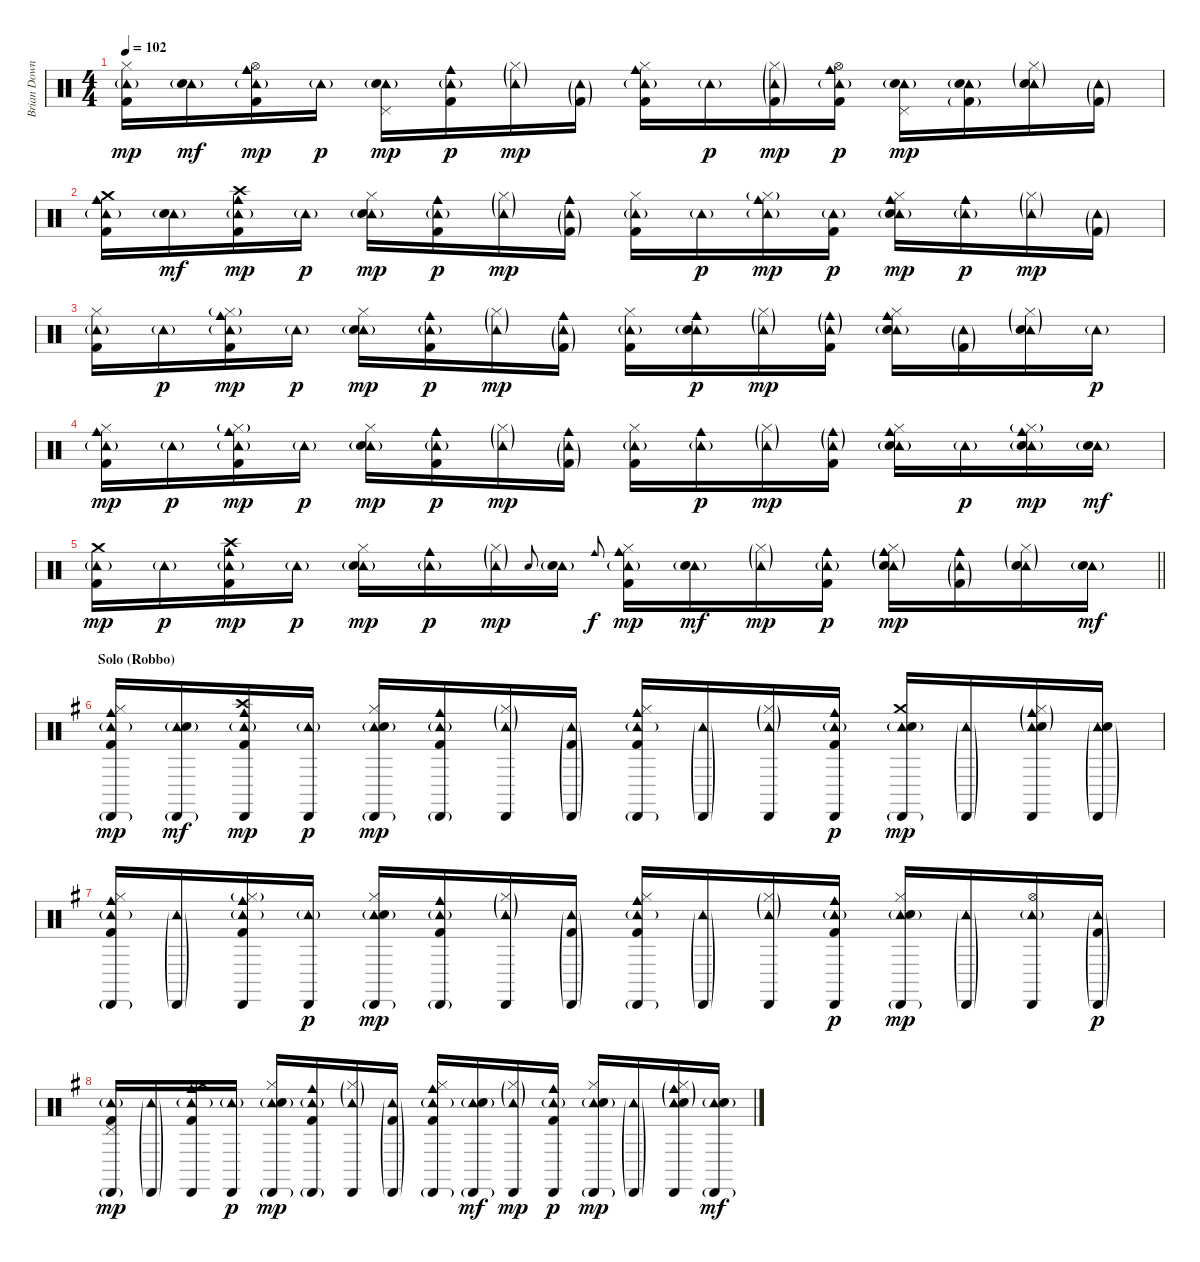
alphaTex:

\track ("Brian Downey" "Brian Down") {instrument percussion}
\staff {score}
\articulation defaults
\ts (4 4)
\tempo 102
\clef neutral
\ks c
("Hi-Hat (closed)" "Tambourine (hit)"{g} "Kick (hit) 2").16{dy mp} ("Tambourine (hit)"{g} "Electric Snare (hit)").16{dy mf} ("Hi-Hat (open)" "Tambourine (hit)"{g} "Cowbell medium (hit)" "Kick (hit) 2").16{dy mp} "Tambourine (hit)"{g}.16{dy p} ("Pedal Hi-Hat (hit)" "Tambourine (hit)"{g} "Electric Snare (hit)").16{dy mp} ("Tambourine (hit)"{g} "Cowbell medium (hit)" "Kick (hit) 2").16{dy p} ("Hi-Hat (closed)"{g} "Tambourine (hit)"{g}).16{dy mp} ("Tambourine (hit)"{g} "Kick (hit) 2"{g}).16 ("Hi-Hat (closed)" "Tambourine (hit)"{g} "Cowbell medium (hit)" "Kick (hit) 2").16 "Tambourine (hit)"{g}.16{dy p} ("Hi-Hat (closed)"{g} "Tambourine (hit)"{g} "Kick (hit) 2"{g}).16{dy mp} ("Hi-Hat (open)" "Tambourine (hit)"{g} "Cowbell medium (hit)" "Kick (hit) 2").16{dy p} ("Pedal Hi-Hat (hit)" "Tambourine (hit)"{g} "Electric Snare (hit)").16{dy mp} ("Tambourine (hit)"{g} "Electric Snare (hit)" "Kick (hit) 2"{g}).16 ("Hi-Hat (closed)"{g} "Tambourine (hit)"{g} "Electric Snare (hit)").16 ("Tambourine (hit)"{g} "Kick (hit) 2"{g}).16 |
("Crash medium (hit)" "Tambourine (hit)"{g} "Cowbell medium (hit)" "Kick (hit) 2").16 ("Tambourine (hit)"{g} "Electric Snare (hit)").16{dy mf} ("Crash high (hit)" "Tambourine (hit)"{g} "Cowbell medium (hit)" "Kick (hit) 2").16{dy mp} "Tambourine (hit)"{g}.16{dy p} ("Hi-Hat (closed)" "Tambourine (hit)"{g} "Electric Snare (hit)").16{dy mp} ("Tambourine (hit)"{g} "Cowbell medium (hit)" "Kick (hit) 2").16{dy p} ("Hi-Hat (closed)"{g} "Tambourine (hit)"{g}).16{dy mp} ("Tambourine (hit)"{g} "Cowbell medium (hit)" "Kick (hit) 2"{g}).16 ("Hi-Hat (closed)" "Tambourine (hit)"{g} "Kick (hit) 2").16 "Tambourine (hit)"{g}.16{dy p} ("Hi-Hat (closed)"{g} "Tambourine (hit)"{g} "Cowbell medium (hit)").16{dy mp} ("Tambourine (hit)"{g} "Kick (hit) 2").16{dy p} ("Hi-Hat (closed)" "Tambourine (hit)"{g} "Cowbell medium (hit)" "Electric Snare (hit)").16{dy mp} ("Tambourine (hit)"{g} "Cowbell medium (hit)").16{dy p} ("Hi-Hat (closed)"{g} "Tambourine (hit)"{g}).16{dy mp} ("Tambourine (hit)"{g} "Kick (hit) 2"{g}).16 |
("Hi-Hat (closed)" "Tambourine (hit)"{g} "Kick (hit) 2").16 "Tambourine (hit)"{g}.16{dy p} ("Hi-Hat (closed)"{g} "Tambourine (hit)"{g} "Cowbell medium (hit)" "Kick (hit) 2").16{dy mp} "Tambourine (hit)"{g}.16{dy p} ("Hi-Hat (closed)" "Tambourine (hit)"{g} "Electric Snare (hit)").16{dy mp} ("Tambourine (hit)"{g} "Cowbell medium (hit)" "Kick (hit) 2").16{dy p} ("Hi-Hat (closed)"{g} "Tambourine (hit)"{g}).16{dy mp} ("Tambourine (hit)"{g} "Cowbell medium (hit)" "Kick (hit) 2"{g}).16 ("Hi-Hat (closed)" "Tambourine (hit)"{g} "Kick (hit) 2").16 ("Tambourine (hit)"{g} "Cowbell medium (hit)" "Electric Snare (hit)").16{dy p} ("Hi-Hat (closed)"{g} "Tambourine (hit)"{g}).16{dy mp} ("Tambourine (hit)"{g} "Cowbell medium (hit)"{g} "Kick (hit) 2").16 ("Hi-Hat (closed)" "Tambourine (hit)"{g} "Cowbell medium (hit)" "Electric Snare (hit)").16 ("Tambourine (hit)"{g} "Kick (hit) 2"{g}).16 ("Hi-Hat (closed)"{g} "Tambourine (hit)"{g} "Electric Snare (hit)").16 "Tambourine (hit)"{g}.16{dy p} |
("Hi-Hat (closed)" "Tambourine (hit)"{g} "Cowbell medium (hit)" "Kick (hit) 2").16{dy mp} "Tambourine (hit)"{g}.16{dy p} ("Hi-Hat (closed)"{g} "Tambourine (hit)"{g} "Cowbell medium (hit)" "Kick (hit) 2").16{dy mp} "Tambourine (hit)"{g}.16{dy p} ("Hi-Hat (closed)" "Tambourine (hit)"{g} "Electric Snare (hit)").16{dy mp} ("Tambourine (hit)"{g} "Cowbell medium (hit)" "Kick (hit) 2").16{dy p} ("Hi-Hat (closed)"{g} "Tambourine (hit)"{g}).16{dy mp} ("Tambourine (hit)"{g} "Cowbell medium (hit)" "Kick (hit) 2"{g}).16 ("Hi-Hat (closed)" "Tambourine (hit)"{g} "Kick (hit) 2").16 ("Tambourine (hit)"{g} "Cowbell medium (hit)").16{dy p} ("Hi-Hat (closed)"{g} "Tambourine (hit)"{g}).16{dy mp} ("Tambourine (hit)"{g} "Cowbell medium (hit)"{g} "Kick (hit) 2").16 ("Hi-Hat (closed)" "Tambourine (hit)"{g} "Cowbell medium (hit)" "Electric Snare (hit)").16 "Tambourine (hit)"{g}.16{dy p} ("Hi-Hat (closed)"{g} "Tambourine (hit)"{g} "Cowbell medium (hit)" "Electric Snare (hit)").16{dy mp} ("Tambourine (hit)"{g} "Electric Snare (hit)").16{dy mf} |
\barLineRight lightlight
("Crash medium (hit)" "Tambourine (hit)"{g} "Kick (hit) 2").16{dy mp} "Tambourine (hit)"{g}.16{dy p} ("Crash high (hit)" "Tambourine (hit)"{g} "Cowbell medium (hit)" "Kick (hit) 2").16{dy mp} "Tambourine (hit)"{g}.16{dy p} ("Hi-Hat (closed)" "Tambourine (hit)"{g} "Electric Snare (hit)").16{dy mp} ("Tambourine (hit)"{g} "Cowbell medium (hit)").16{dy p} ("Hi-Hat (closed)"{g} "Tambourine (hit)"{g}).16{dy mp} "Electric Snare (hit)".8{gr onbeat} ("Tambourine (hit)"{g} "Electric Snare (hit)"{g}).16 "Cowbell medium (hit)".8{gr onbeat dy f} ("Hi-Hat (closed)" "Tambourine (hit)"{g} "Cowbell medium (hit)" "Kick (hit) 2").16{dy mp} ("Tambourine (hit)"{g} "Electric Snare (hit)").16{dy mf} ("Hi-Hat (closed)"{g} "Tambourine (hit)"{g}).16{dy mp} ("Tambourine (hit)"{g} "Cowbell medium (hit)" "Kick (hit) 2").16{dy p} ("Hi-Hat (closed)" "Tambourine (hit)"{g} "Cowbell medium (hit)"{g} "Electric Snare (hit)").16{dy mp} ("Tambourine (hit)"{g} "Cowbell medium (hit)" "Kick (hit) 2"{g}).16 ("Hi-Hat (closed)"{g} "Tambourine (hit)"{g} "Electric Snare (hit)").16 ("Tambourine (hit)"{g} "Electric Snare (hit)").16{dy mf} |
\section ("" "Solo (Robbo)")
\ks eminor
("Hi-Hat (closed)" "Tambourine (hit)"{g} "Cowbell medium (hit)" "Cabasa (hit)"{g} "Kick (hit) 2").16{dy mp} ("Tambourine (hit)"{g} "Cabasa (hit)"{g} "Electric Snare (hit)").16{dy mf} ("Crash high (hit)" "Tambourine (hit)"{g} "Cowbell medium (hit)" "Cabasa (hit)" "Kick (hit) 2").16{dy mp} ("Tambourine (hit)"{g} "Cabasa (hit)").16{dy p} ("Hi-Hat (closed)" "Tambourine (hit)"{g} "Cabasa (hit)"{g} "Electric Snare (hit)").16{dy mp} ("Tambourine (hit)"{g} "Cowbell medium (hit)" "Cabasa (hit)"{g} "Kick (hit) 2").16 ("Hi-Hat (closed)"{g} "Tambourine (hit)"{g} "Cabasa (hit)").16 ("Tambourine (hit)"{g} "Cabasa (hit)"{g} "Kick (hit) 2"{g}).16 ("Hi-Hat (closed)" "Tambourine (hit)"{g} "Cowbell medium (hit)" "Cabasa (hit)"{g} "Kick (hit) 2").16 ("Tambourine (hit)"{g} "Cabasa (hit)"{g}).16 ("Hi-Hat (closed)"{g} "Tambourine (hit)"{g} "Cabasa (hit)").16 ("Tambourine (hit)"{g} "Cowbell medium (hit)" "Cabasa (hit)" "Kick (hit) 2").16{dy p} ("Crash medium (hit)" "Tambourine (hit)"{g} "Cabasa (hit)"{g} "Electric Snare (hit)").16{dy mp} ("Tambourine (hit)"{g} "Cabasa (hit)"{g}).16 ("Hi-Hat (closed)"{g} "Tambourine (hit)"{g} "Cowbell medium (hit)"{g} "Cabasa (hit)" "Electric Snare (hit)").16 ("Tambourine (hit)"{g} "Cabasa (hit)"{g} "Electric Snare (hit)"{g}).16 |
("Hi-Hat (closed)" "Tambourine (hit)"{g} "Cowbell medium (hit)" "Cabasa (hit)"{g} "Kick (hit) 2").16 ("Tambourine (hit)"{g} "Cabasa (hit)"{g}).16 ("Hi-Hat (closed)"{g} "Tambourine (hit)"{g} "Cowbell medium (hit)" "Cabasa (hit)" "Kick (hit) 2").16 ("Tambourine (hit)"{g} "Cabasa (hit)").16{dy p} ("Hi-Hat (closed)" "Tambourine (hit)"{g} "Cabasa (hit)"{g} "Electric Snare (hit)").16{dy mp} ("Tambourine (hit)"{g} "Cowbell medium (hit)" "Cabasa (hit)"{g} "Kick (hit) 2").16 ("Hi-Hat (closed)"{g} "Tambourine (hit)"{g} "Cabasa (hit)").16 ("Tambourine (hit)"{g} "Cabasa (hit)"{g} "Kick (hit) 2"{g}).16 ("Hi-Hat (closed)" "Tambourine (hit)"{g} "Cowbell medium (hit)" "Cabasa (hit)"{g} "Kick (hit) 2").16 ("Tambourine (hit)"{g} "Cabasa (hit)"{g}).16 ("Hi-Hat (closed)"{g} "Tambourine (hit)"{g} "Cabasa (hit)").16 ("Tambourine (hit)"{g} "Cowbell medium (hit)" "Cabasa (hit)" "Kick (hit) 2").16{dy p} ("Hi-Hat (closed)" "Tambourine (hit)"{g} "Cabasa (hit)"{g} "Electric Snare (hit)").16{dy mp} ("Tambourine (hit)"{g} "Cabasa (hit)"{g}).16 ("Hi-Hat (open)" "Tambourine (hit)"{g} "Cabasa (hit)").16 ("Tambourine (hit)"{g} "Cabasa (hit)"{g} "Kick (hit) 2"{g}).16{dy p} |
("Pedal Hi-Hat (hit)" "Tambourine (hit)"{g} "Cabasa (hit)"{g} "Kick (hit) 2").16{dy mp} ("Tambourine (hit)"{g} "Cabasa (hit)"{g}).16 ("Crash medium (hit)" "Tambourine (hit)"{g} "Cowbell medium (hit)" "Cabasa (hit)" "Kick (hit) 2").16 ("Tambourine (hit)"{g} "Cabasa (hit)").16{dy p} ("Hi-Hat (closed)" "Tambourine (hit)"{g} "Cabasa (hit)"{g} "Electric Snare (hit)").16{dy mp} ("Tambourine (hit)"{g} "Cowbell medium (hit)" "Cabasa (hit)"{g} "Kick (hit) 2").16 ("Hi-Hat (closed)"{g} "Tambourine (hit)"{g} "Cabasa (hit)").16 ("Tambourine (hit)"{g} "Cabasa (hit)"{g} "Kick (hit) 2"{g}).16 ("Hi-Hat (closed)" "Tambourine (hit)"{g} "Cowbell medium (hit)" "Cabasa (hit)"{g} "Kick (hit) 2").16 ("Tambourine (hit)"{g} "Cabasa (hit)"{g} "Electric Snare (hit)").16{dy mf} ("Hi-Hat (closed)"{g} "Tambourine (hit)"{g} "Cabasa (hit)").16{dy mp} ("Tambourine (hit)"{g} "Cowbell medium (hit)" "Cabasa (hit)" "Kick (hit) 2").16{dy p} ("Hi-Hat (closed)" "Tambourine (hit)"{g} "Cabasa (hit)"{g} "Electric Snare (hit)").16{dy mp} ("Tambourine (hit)"{g} "Cabasa (hit)"{g}).16 ("Hi-Hat (closed)"{g} "Tambourine (hit)"{g} "Cowbell medium (hit)"{g} "Cabasa (hit)" "Electric Snare (hit)").16 ("Tambourine (hit)"{g} "Cabasa (hit)"{g} "Electric Snare (hit)").16{dy mf}
